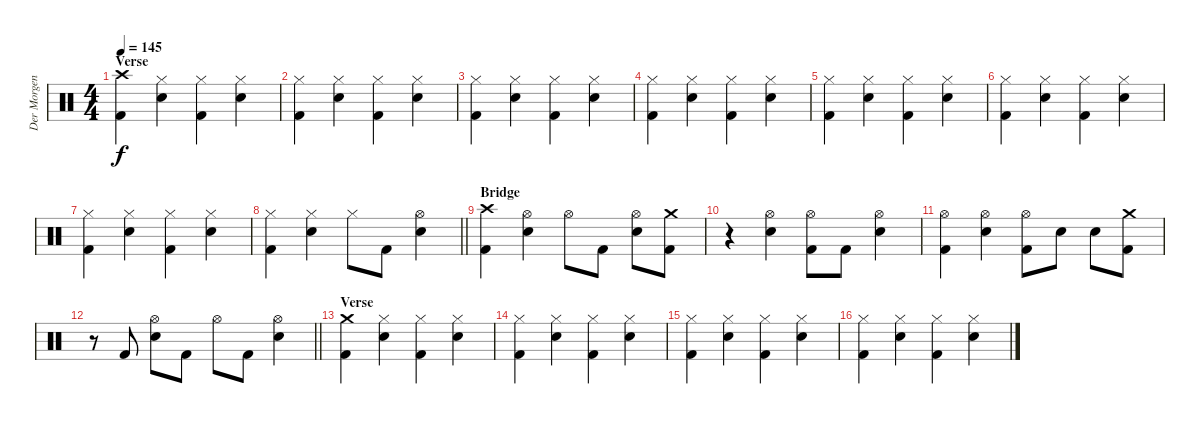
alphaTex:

\track ("Der Morgenstern" "Der Morgen") {instrument percussion}
\staff {score}
\articulation defaults
\ts (4 4)
\section ("" "Verse")
\tempo 145
\clef neutral
\ks c
("Crash high (hit)" "Kick (hit) 2").4{dy f} ("Hi-Hat (closed)" "Electric Snare (hit)").4 ("Hi-Hat (closed)" "Kick (hit) 2").4 ("Hi-Hat (closed)" "Electric Snare (hit)").4 |
("Hi-Hat (closed)" "Kick (hit) 2").4 ("Hi-Hat (closed)" "Electric Snare (hit)").4 ("Hi-Hat (closed)" "Kick (hit) 2").4 ("Hi-Hat (closed)" "Electric Snare (hit)").4 |
("Hi-Hat (closed)" "Kick (hit) 2").4 ("Hi-Hat (closed)" "Electric Snare (hit)").4 ("Hi-Hat (closed)" "Kick (hit) 2").4 ("Hi-Hat (closed)" "Electric Snare (hit)").4 |
("Hi-Hat (closed)" "Kick (hit) 2").4 ("Hi-Hat (closed)" "Electric Snare (hit)").4 ("Hi-Hat (closed)" "Kick (hit) 2").4 ("Hi-Hat (closed)" "Electric Snare (hit)").4 |
("Hi-Hat (closed)" "Kick (hit) 2").4 ("Hi-Hat (closed)" "Electric Snare (hit)").4 ("Hi-Hat (closed)" "Kick (hit) 2").4 ("Hi-Hat (closed)" "Electric Snare (hit)").4 |
("Hi-Hat (closed)" "Kick (hit) 2").4 ("Hi-Hat (closed)" "Electric Snare (hit)").4 ("Hi-Hat (closed)" "Kick (hit) 2").4 ("Hi-Hat (closed)" "Electric Snare (hit)").4 |
("Hi-Hat (closed)" "Kick (hit) 2").4 ("Hi-Hat (closed)" "Electric Snare (hit)").4 ("Hi-Hat (closed)" "Kick (hit) 2").4 ("Hi-Hat (closed)" "Electric Snare (hit)").4 |
\barLineRight lightlight
("Hi-Hat (closed)" "Kick (hit) 2").4 ("Hi-Hat (closed)" "Electric Snare (hit)").4 "Hi-Hat (closed)".8 "Kick (hit) 2".8 ("Hi-Hat (open)" "Electric Snare (hit)").4 |
\section ("" "Bridge")
("Crash high (hit)" "Kick (hit) 2").4 ("Hi-Hat (open)" "Electric Snare (hit)").4 "Hi-Hat (open)".8 "Kick (hit) 2".8 ("Hi-Hat (open)" "Electric Snare (hit)").8 ("Crash medium (hit)" "Kick (hit) 2").8 |
r.4 ("Hi-Hat (open)" "Electric Snare (hit)").4 ("Hi-Hat (open)" "Kick (hit) 2").8 "Kick (hit) 2".8 ("Hi-Hat (open)" "Electric Snare (hit)").4 |
("Hi-Hat (open)" "Kick (hit) 2").4 ("Hi-Hat (open)" "Electric Snare (hit)").4 ("Hi-Hat (open)" "Kick (hit) 2").8 "Electric Snare (hit)".8 "Electric Snare (hit)".8 ("Crash medium (hit)" "Kick (hit) 2").8 |
\barLineRight lightlight
r.8 "Kick (hit) 2".8 ("Hi-Hat (open)" "Electric Snare (hit)").8 "Kick (hit) 2".8 "Hi-Hat (open)".8 "Kick (hit) 2".8 ("Hi-Hat (open)" "Electric Snare (hit)").4 |
\section ("" "Verse")
("Crash medium (hit)" "Kick (hit) 2").4 ("Hi-Hat (closed)" "Electric Snare (hit)").4 ("Hi-Hat (closed)" "Kick (hit) 2").4 ("Hi-Hat (closed)" "Electric Snare (hit)").4 |
("Hi-Hat (closed)" "Kick (hit) 2").4 ("Hi-Hat (closed)" "Electric Snare (hit)").4 ("Hi-Hat (closed)" "Kick (hit) 2").4 ("Hi-Hat (closed)" "Electric Snare (hit)").4 |
("Hi-Hat (closed)" "Kick (hit) 2").4 ("Hi-Hat (closed)" "Electric Snare (hit)").4 ("Hi-Hat (closed)" "Kick (hit) 2").4 ("Hi-Hat (closed)" "Electric Snare (hit)").4 |
("Hi-Hat (closed)" "Kick (hit) 2").4 ("Hi-Hat (closed)" "Electric Snare (hit)").4 ("Hi-Hat (closed)" "Kick (hit) 2").4 ("Hi-Hat (closed)" "Electric Snare (hit)").4
